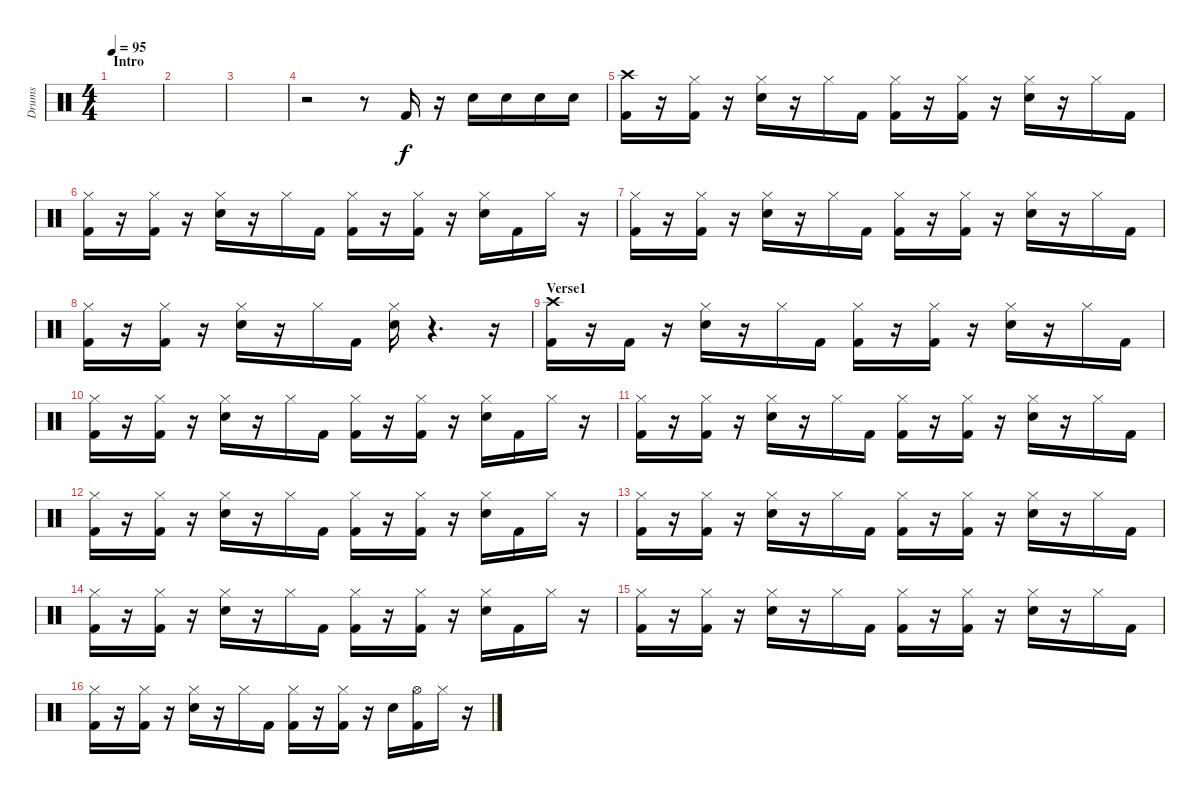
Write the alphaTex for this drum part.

\track ("Drums" "Drums") {instrument percussion}
\staff {score}
\articulation defaults
\ts (4 4)
\section ("" "Intro")
\tempo 95
\clef neutral
\ks c
|
|
|
r.2 r.8 "Kick (hit) 2".16 r.16 "Snare (hit) 2".16 "Snare (hit) 2".16 "Snare (hit) 2".16 "Snare (hit) 2".16 |
("Crash high (hit)" "Kick (hit) 2").16 r.16 ("Hi-Hat (closed)" "Kick (hit) 2").16 r.16 ("Hi-Hat (closed)" "Snare (hit) 2").16 r.16 "Hi-Hat (closed)".16 "Kick (hit) 2".16 ("Hi-Hat (closed)" "Kick (hit) 2").16 r.16 ("Hi-Hat (closed)" "Kick (hit) 2").16 r.16 ("Hi-Hat (closed)" "Snare (hit) 2").16 r.16 "Hi-Hat (closed)".16 "Kick (hit) 2".16 |
("Hi-Hat (closed)" "Kick (hit) 2").16 r.16 ("Hi-Hat (closed)" "Kick (hit) 2").16 r.16 ("Hi-Hat (closed)" "Snare (hit) 2").16 r.16 "Hi-Hat (closed)".16 "Kick (hit) 2".16 ("Hi-Hat (closed)" "Kick (hit) 2").16 r.16 ("Hi-Hat (closed)" "Kick (hit) 2").16 r.16 ("Hi-Hat (closed)" "Snare (hit) 2").16 "Kick (hit) 2".16 "Hi-Hat (closed)".16 r.16 |
("Hi-Hat (closed)" "Kick (hit) 2").16 r.16 ("Hi-Hat (closed)" "Kick (hit) 2").16 r.16 ("Hi-Hat (closed)" "Snare (hit) 2").16 r.16 "Hi-Hat (closed)".16 "Kick (hit) 2".16 ("Hi-Hat (closed)" "Kick (hit) 2").16 r.16 ("Hi-Hat (closed)" "Kick (hit) 2").16 r.16 ("Hi-Hat (closed)" "Snare (hit) 2").16 r.16 "Hi-Hat (closed)".16 "Kick (hit) 2".16 |
("Hi-Hat (closed)" "Kick (hit) 2").16 r.16 ("Hi-Hat (closed)" "Kick (hit) 2").16 r.16 ("Hi-Hat (closed)" "Snare (hit) 2").16 r.16 "Hi-Hat (closed)".16 "Kick (hit) 2".16 ("Hi-Hat (closed)" "Snare (hit) 2").16 r.4{d} r.16 |
\section ("" "Verse1")
("Crash high (hit)" "Kick (hit) 2").16 r.16 "Kick (hit) 2".16 r.16 ("Hi-Hat (closed)" "Snare (hit) 2").16 r.16 "Hi-Hat (closed)".16 "Kick (hit) 2".16 ("Hi-Hat (closed)" "Kick (hit) 2").16 r.16 ("Hi-Hat (closed)" "Kick (hit) 2").16 r.16 ("Hi-Hat (closed)" "Snare (hit) 2").16 r.16 "Hi-Hat (closed)".16 "Kick (hit) 2".16 |
("Hi-Hat (closed)" "Kick (hit) 2").16 r.16 ("Hi-Hat (closed)" "Kick (hit) 2").16 r.16 ("Hi-Hat (closed)" "Snare (hit) 2").16 r.16 "Hi-Hat (closed)".16 "Kick (hit) 2".16 ("Hi-Hat (closed)" "Kick (hit) 2").16 r.16 ("Hi-Hat (closed)" "Kick (hit) 2").16 r.16 ("Hi-Hat (closed)" "Snare (hit) 2").16 "Kick (hit) 2".16 "Hi-Hat (closed)".16 r.16 |
("Hi-Hat (closed)" "Kick (hit) 2").16 r.16 ("Hi-Hat (closed)" "Kick (hit) 2").16 r.16 ("Hi-Hat (closed)" "Snare (hit) 2").16 r.16 "Hi-Hat (closed)".16 "Kick (hit) 2".16 ("Hi-Hat (closed)" "Kick (hit) 2").16 r.16 ("Hi-Hat (closed)" "Kick (hit) 2").16 r.16 ("Hi-Hat (closed)" "Snare (hit) 2").16 r.16 "Hi-Hat (closed)".16 "Kick (hit) 2".16 |
("Hi-Hat (closed)" "Kick (hit) 2").16 r.16 ("Hi-Hat (closed)" "Kick (hit) 2").16 r.16 ("Hi-Hat (closed)" "Snare (hit) 2").16 r.16 "Hi-Hat (closed)".16 "Kick (hit) 2".16 ("Hi-Hat (closed)" "Kick (hit) 2").16 r.16 ("Hi-Hat (closed)" "Kick (hit) 2").16 r.16 ("Hi-Hat (closed)" "Snare (hit) 2").16 "Kick (hit) 2".16 "Hi-Hat (closed)".16 r.16 |
("Hi-Hat (closed)" "Kick (hit) 2").16 r.16 ("Hi-Hat (closed)" "Kick (hit) 2").16 r.16 ("Hi-Hat (closed)" "Snare (hit) 2").16 r.16 "Hi-Hat (closed)".16 "Kick (hit) 2".16 ("Hi-Hat (closed)" "Kick (hit) 2").16 r.16 ("Hi-Hat (closed)" "Kick (hit) 2").16 r.16 ("Hi-Hat (closed)" "Snare (hit) 2").16 r.16 "Hi-Hat (closed)".16 "Kick (hit) 2".16 |
("Hi-Hat (closed)" "Kick (hit) 2").16 r.16 ("Hi-Hat (closed)" "Kick (hit) 2").16 r.16 ("Hi-Hat (closed)" "Snare (hit) 2").16 r.16 "Hi-Hat (closed)".16 "Kick (hit) 2".16 ("Hi-Hat (closed)" "Kick (hit) 2").16 r.16 ("Hi-Hat (closed)" "Kick (hit) 2").16 r.16 ("Hi-Hat (closed)" "Snare (hit) 2").16 "Kick (hit) 2".16 "Hi-Hat (closed)".16 r.16 |
("Hi-Hat (closed)" "Kick (hit) 2").16 r.16 ("Hi-Hat (closed)" "Kick (hit) 2").16 r.16 ("Hi-Hat (closed)" "Snare (hit) 2").16 r.16 "Hi-Hat (closed)".16 "Kick (hit) 2".16 ("Hi-Hat (closed)" "Kick (hit) 2").16 r.16 ("Hi-Hat (closed)" "Kick (hit) 2").16 r.16 ("Hi-Hat (closed)" "Snare (hit) 2").16 r.16 "Hi-Hat (closed)".16 "Kick (hit) 2".16 |
("Hi-Hat (closed)" "Kick (hit) 2").16 r.16 ("Hi-Hat (closed)" "Kick (hit) 2").16 r.16 ("Hi-Hat (closed)" "Snare (hit) 2").16 r.16 "Hi-Hat (closed)".16 "Kick (hit) 2".16 ("Hi-Hat (closed)" "Kick (hit) 2").16 r.16 ("Hi-Hat (closed)" "Kick (hit) 2").16 r.16 "Snare (hit) 2".16 ("Hi-Hat (open)" "Kick (hit) 2").16 "Hi-Hat (closed)".16 r.16
